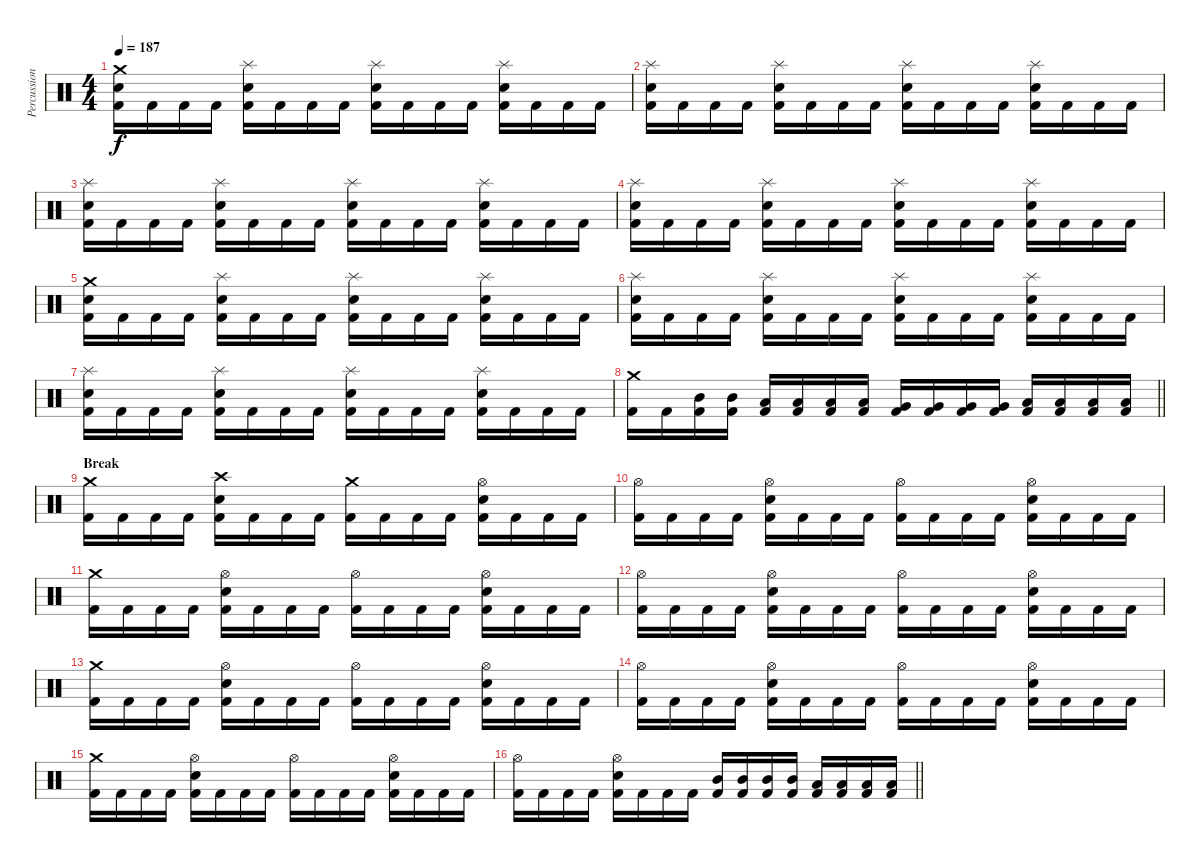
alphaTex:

\track ("Percussion" "Percussion") {instrument percussion}
\staff {score}
\articulation defaults
\ts (4 4)
\section ("" "")
\tempo 187
\clef neutral
\ks c
("Kick (hit) 2" "Snare (hit) 2" "Crash medium (hit)").16{dy f} "Kick (hit) 2".16 "Kick (hit) 2".16 "Kick (hit) 2".16 ("Kick (hit) 2" "Snare (hit) 2" "Splash (hit)").16 "Kick (hit) 2".16 "Kick (hit) 2".16 "Kick (hit) 2".16 ("Kick (hit) 2" "Snare (hit) 2" "Splash (hit)").16 "Kick (hit) 2".16 "Kick (hit) 2".16 "Kick (hit) 2".16 ("Kick (hit) 2" "Snare (hit) 2" "Splash (hit)").16 "Kick (hit) 2".16 "Kick (hit) 2".16 "Kick (hit) 2".16 |
("Kick (hit) 2" "Snare (hit) 2" "Splash (hit)").16 "Kick (hit) 2".16 "Kick (hit) 2".16 "Kick (hit) 2".16 ("Kick (hit) 2" "Snare (hit) 2" "Splash (hit)").16 "Kick (hit) 2".16 "Kick (hit) 2".16 "Kick (hit) 2".16 ("Kick (hit) 2" "Snare (hit) 2" "Splash (hit)").16 "Kick (hit) 2".16 "Kick (hit) 2".16 "Kick (hit) 2".16 ("Kick (hit) 2" "Snare (hit) 2" "Splash (hit)").16 "Kick (hit) 2".16 "Kick (hit) 2".16 "Kick (hit) 2".16 |
("Kick (hit) 2" "Snare (hit) 2" "Splash (hit)").16 "Kick (hit) 2".16 "Kick (hit) 2".16 "Kick (hit) 2".16 ("Kick (hit) 2" "Snare (hit) 2" "Splash (hit)").16 "Kick (hit) 2".16 "Kick (hit) 2".16 "Kick (hit) 2".16 ("Kick (hit) 2" "Snare (hit) 2" "Splash (hit)").16 "Kick (hit) 2".16 "Kick (hit) 2".16 "Kick (hit) 2".16 ("Kick (hit) 2" "Snare (hit) 2" "Splash (hit)").16 "Kick (hit) 2".16 "Kick (hit) 2".16 "Kick (hit) 2".16 |
("Kick (hit) 2" "Snare (hit) 2" "Splash (hit)").16 "Kick (hit) 2".16 "Kick (hit) 2".16 "Kick (hit) 2".16 ("Kick (hit) 2" "Snare (hit) 2" "Splash (hit)").16 "Kick (hit) 2".16 "Kick (hit) 2".16 "Kick (hit) 2".16 ("Kick (hit) 2" "Snare (hit) 2" "Splash (hit)").16 "Kick (hit) 2".16 "Kick (hit) 2".16 "Kick (hit) 2".16 ("Kick (hit) 2" "Snare (hit) 2" "Splash (hit)").16 "Kick (hit) 2".16 "Kick (hit) 2".16 "Kick (hit) 2".16 |
("Kick (hit) 2" "Snare (hit) 2" "Crash medium (hit)").16 "Kick (hit) 2".16 "Kick (hit) 2".16 "Kick (hit) 2".16 ("Kick (hit) 2" "Snare (hit) 2" "Splash (hit)").16 "Kick (hit) 2".16 "Kick (hit) 2".16 "Kick (hit) 2".16 ("Kick (hit) 2" "Snare (hit) 2" "Splash (hit)").16 "Kick (hit) 2".16 "Kick (hit) 2".16 "Kick (hit) 2".16 ("Kick (hit) 2" "Snare (hit) 2" "Splash (hit)").16 "Kick (hit) 2".16 "Kick (hit) 2".16 "Kick (hit) 2".16 |
("Kick (hit) 2" "Snare (hit) 2" "Splash (hit)").16 "Kick (hit) 2".16 "Kick (hit) 2".16 "Kick (hit) 2".16 ("Kick (hit) 2" "Snare (hit) 2" "Splash (hit)").16 "Kick (hit) 2".16 "Kick (hit) 2".16 "Kick (hit) 2".16 ("Kick (hit) 2" "Snare (hit) 2" "Splash (hit)").16 "Kick (hit) 2".16 "Kick (hit) 2".16 "Kick (hit) 2".16 ("Kick (hit) 2" "Snare (hit) 2" "Splash (hit)").16 "Kick (hit) 2".16 "Kick (hit) 2".16 "Kick (hit) 2".16 |
("Kick (hit) 2" "Snare (hit) 2" "Splash (hit)").16 "Kick (hit) 2".16 "Kick (hit) 2".16 "Kick (hit) 2".16 ("Kick (hit) 2" "Snare (hit) 2" "Splash (hit)").16 "Kick (hit) 2".16 "Kick (hit) 2".16 "Kick (hit) 2".16 ("Kick (hit) 2" "Snare (hit) 2" "Splash (hit)").16 "Kick (hit) 2".16 "Kick (hit) 2".16 "Kick (hit) 2".16 ("Kick (hit) 2" "Snare (hit) 2" "Splash (hit)").16 "Kick (hit) 2".16 "Kick (hit) 2".16 "Kick (hit) 2".16 |
\barLineRight lightlight
("Kick (hit) 2" "Crash medium (hit)").16 "Kick (hit) 2".16 ("Kick (hit) 2" "Mid Tom (hit)").16 ("Kick (hit) 2" "Mid Tom (hit)").16 ("Kick (hit) 2" "Low Tom (hit)").16 ("Kick (hit) 2" "Low Tom (hit)").16 ("Kick (hit) 2" "Low Tom (hit)").16 ("Kick (hit) 2" "Low Tom (hit)").16 ("Kick (hit) 2" "Very Low Tom (hit)").16 ("Kick (hit) 2" "Very Low Tom (hit)").16 ("Kick (hit) 2" "Very Low Tom (hit)").16 ("Kick (hit) 2" "Very Low Tom (hit)").16 ("Kick (hit) 2" "Low Floor Tom (hit)").16 ("Kick (hit) 2" "Low Floor Tom (hit)").16 ("Kick (hit) 2" "Low Floor Tom (hit)").16 ("Kick (hit) 2" "Low Floor Tom (hit)").16 |
\section ("" "Break")
("Kick (hit) 2" "Crash medium (hit)").16 "Kick (hit) 2".16 "Kick (hit) 2".16 "Kick (hit) 2".16 ("Kick (hit) 2" "Snare (hit) 2" "Crash high (hit)").16 "Kick (hit) 2".16 "Kick (hit) 2".16 "Kick (hit) 2".16 ("Kick (hit) 2" "Crash medium (hit)").16 "Kick (hit) 2".16 "Kick (hit) 2".16 "Kick (hit) 2".16 ("Kick (hit) 2" "Snare (hit) 2" "Hi-Hat (open)").16 "Kick (hit) 2".16 "Kick (hit) 2".16 "Kick (hit) 2".16 |
("Kick (hit) 2" "Hi-Hat (open)").16 "Kick (hit) 2".16 "Kick (hit) 2".16 "Kick (hit) 2".16 ("Kick (hit) 2" "Snare (hit) 2" "Hi-Hat (open)").16 "Kick (hit) 2".16 "Kick (hit) 2".16 "Kick (hit) 2".16 ("Kick (hit) 2" "Hi-Hat (open)").16 "Kick (hit) 2".16 "Kick (hit) 2".16 "Kick (hit) 2".16 ("Kick (hit) 2" "Snare (hit) 2" "Hi-Hat (open)").16 "Kick (hit) 2".16 "Kick (hit) 2".16 "Kick (hit) 2".16 |
("Kick (hit) 2" "Crash medium (hit)").16 "Kick (hit) 2".16 "Kick (hit) 2".16 "Kick (hit) 2".16 ("Kick (hit) 2" "Snare (hit) 2" "Hi-Hat (open)").16 "Kick (hit) 2".16 "Kick (hit) 2".16 "Kick (hit) 2".16 ("Kick (hit) 2" "Hi-Hat (open)").16 "Kick (hit) 2".16 "Kick (hit) 2".16 "Kick (hit) 2".16 ("Kick (hit) 2" "Snare (hit) 2" "Hi-Hat (open)").16 "Kick (hit) 2".16 "Kick (hit) 2".16 "Kick (hit) 2".16 |
("Kick (hit) 2" "Hi-Hat (open)").16 "Kick (hit) 2".16 "Kick (hit) 2".16 "Kick (hit) 2".16 ("Kick (hit) 2" "Snare (hit) 2" "Hi-Hat (open)").16 "Kick (hit) 2".16 "Kick (hit) 2".16 "Kick (hit) 2".16 ("Kick (hit) 2" "Hi-Hat (open)").16 "Kick (hit) 2".16 "Kick (hit) 2".16 "Kick (hit) 2".16 ("Kick (hit) 2" "Snare (hit) 2" "Hi-Hat (open)").16 "Kick (hit) 2".16 "Kick (hit) 2".16 "Kick (hit) 2".16 |
("Kick (hit) 2" "Crash medium (hit)").16 "Kick (hit) 2".16 "Kick (hit) 2".16 "Kick (hit) 2".16 ("Kick (hit) 2" "Snare (hit) 2" "Hi-Hat (open)").16 "Kick (hit) 2".16 "Kick (hit) 2".16 "Kick (hit) 2".16 ("Kick (hit) 2" "Hi-Hat (open)").16 "Kick (hit) 2".16 "Kick (hit) 2".16 "Kick (hit) 2".16 ("Kick (hit) 2" "Snare (hit) 2" "Hi-Hat (open)").16 "Kick (hit) 2".16 "Kick (hit) 2".16 "Kick (hit) 2".16 |
("Kick (hit) 2" "Hi-Hat (open)").16 "Kick (hit) 2".16 "Kick (hit) 2".16 "Kick (hit) 2".16 ("Kick (hit) 2" "Snare (hit) 2" "Hi-Hat (open)").16 "Kick (hit) 2".16 "Kick (hit) 2".16 "Kick (hit) 2".16 ("Kick (hit) 2" "Hi-Hat (open)").16 "Kick (hit) 2".16 "Kick (hit) 2".16 "Kick (hit) 2".16 ("Kick (hit) 2" "Snare (hit) 2" "Hi-Hat (open)").16 "Kick (hit) 2".16 "Kick (hit) 2".16 "Kick (hit) 2".16 |
("Kick (hit) 2" "Crash medium (hit)").16 "Kick (hit) 2".16 "Kick (hit) 2".16 "Kick (hit) 2".16 ("Kick (hit) 2" "Snare (hit) 2" "Hi-Hat (open)").16 "Kick (hit) 2".16 "Kick (hit) 2".16 "Kick (hit) 2".16 ("Kick (hit) 2" "Hi-Hat (open)").16 "Kick (hit) 2".16 "Kick (hit) 2".16 "Kick (hit) 2".16 ("Kick (hit) 2" "Snare (hit) 2" "Hi-Hat (open)").16 "Kick (hit) 2".16 "Kick (hit) 2".16 "Kick (hit) 2".16 |
\barLineRight lightlight
("Kick (hit) 2" "Hi-Hat (open)").16 "Kick (hit) 2".16 "Kick (hit) 2".16 "Kick (hit) 2".16 ("Kick (hit) 2" "Snare (hit) 2" "Hi-Hat (open)").16 "Kick (hit) 2".16 "Kick (hit) 2".16 "Kick (hit) 2".16 ("Kick (hit) 2" "Mid Tom (hit)").16 ("Kick (hit) 2" "Mid Tom (hit)").16 ("Kick (hit) 2" "Mid Tom (hit)").16 ("Kick (hit) 2" "Mid Tom (hit)").16 ("Kick (hit) 2" "Low Tom (hit)").16 ("Kick (hit) 2" "Low Tom (hit)").16 ("Kick (hit) 2" "Low Tom (hit)").16 ("Kick (hit) 2" "Low Tom (hit)").16
